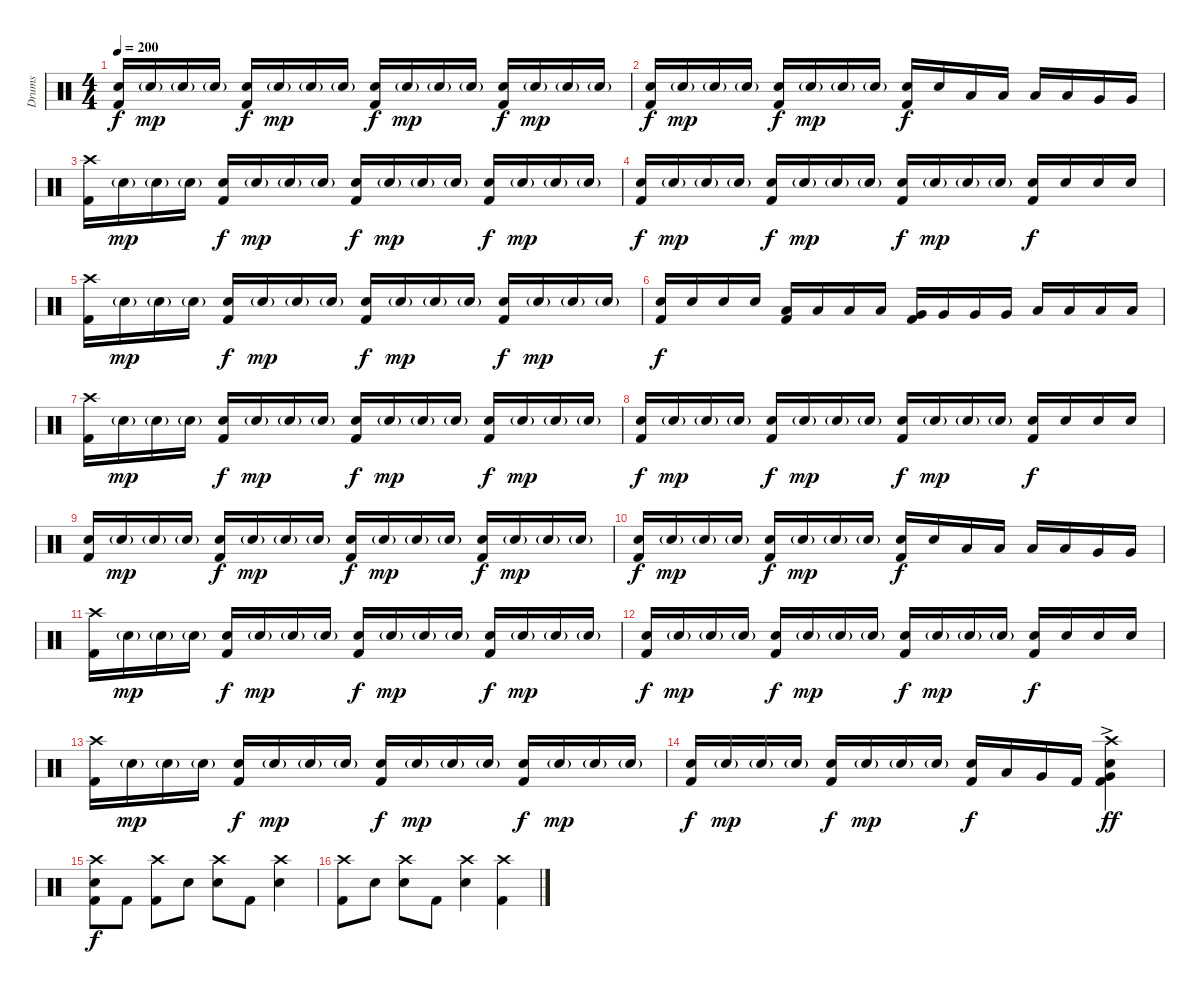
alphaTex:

\track ("Drums" "Drums") {instrument percussion}
\staff {score}
\articulation defaults
\ts (4 4)
\tempo 200
\clef neutral
\ks c
("Electric Snare (hit)" "Kick (hit) 2").16{dy f} "Electric Snare (hit)"{g}.16{dy mp} "Electric Snare (hit)"{g}.16 "Electric Snare (hit)"{g}.16 ("Electric Snare (hit)" "Kick (hit) 2").16{dy f} "Electric Snare (hit)"{g}.16{dy mp} "Electric Snare (hit)"{g}.16 "Electric Snare (hit)"{g}.16 ("Electric Snare (hit)" "Kick (hit) 2").16{dy f} "Electric Snare (hit)"{g}.16{dy mp} "Electric Snare (hit)"{g}.16 "Electric Snare (hit)"{g}.16 ("Electric Snare (hit)" "Kick (hit) 2").16{dy f} "Electric Snare (hit)"{g}.16{dy mp} "Electric Snare (hit)"{g}.16 "Electric Snare (hit)"{g}.16 |
("Electric Snare (hit)" "Kick (hit) 2").16{dy f} "Electric Snare (hit)"{g}.16{dy mp} "Electric Snare (hit)"{g}.16 "Electric Snare (hit)"{g}.16 ("Electric Snare (hit)" "Kick (hit) 2").16{dy f} "Electric Snare (hit)"{g}.16{dy mp} "Electric Snare (hit)"{g}.16 "Electric Snare (hit)"{g}.16 ("Electric Snare (hit)" "Kick (hit) 2").16{dy f} "Electric Snare (hit)".16 "Low Tom (hit)".16 "Low Tom (hit)".16 "Low Tom (hit)".16 "Low Tom (hit)".16 "Very Low Tom (hit)".16 "Very Low Tom (hit)".16 |
("Crash high (hit)" "Kick (hit) 2").16 "Electric Snare (hit)"{g}.16{dy mp} "Electric Snare (hit)"{g}.16 "Electric Snare (hit)"{g}.16 ("Electric Snare (hit)" "Kick (hit) 2").16{dy f} "Electric Snare (hit)"{g}.16{dy mp} "Electric Snare (hit)"{g}.16 "Electric Snare (hit)"{g}.16 ("Electric Snare (hit)" "Kick (hit) 2").16{dy f} "Electric Snare (hit)"{g}.16{dy mp} "Electric Snare (hit)"{g}.16 "Electric Snare (hit)"{g}.16 ("Electric Snare (hit)" "Kick (hit) 2").16{dy f} "Electric Snare (hit)"{g}.16{dy mp} "Electric Snare (hit)"{g}.16 "Electric Snare (hit)"{g}.16 |
("Electric Snare (hit)" "Kick (hit) 2").16{dy f} "Electric Snare (hit)"{g}.16{dy mp} "Electric Snare (hit)"{g}.16 "Electric Snare (hit)"{g}.16 ("Electric Snare (hit)" "Kick (hit) 2").16{dy f} "Electric Snare (hit)"{g}.16{dy mp} "Electric Snare (hit)"{g}.16 "Electric Snare (hit)"{g}.16 ("Electric Snare (hit)" "Kick (hit) 2").16{dy f} "Electric Snare (hit)"{g}.16{dy mp} "Electric Snare (hit)"{g}.16 "Electric Snare (hit)"{g}.16 ("Electric Snare (hit)" "Kick (hit) 2").16{dy f} "Electric Snare (hit)".16 "Electric Snare (hit)".16 "Electric Snare (hit)".16 |
("Crash high (hit)" "Kick (hit) 2").16 "Electric Snare (hit)"{g}.16{dy mp} "Electric Snare (hit)"{g}.16 "Electric Snare (hit)"{g}.16 ("Electric Snare (hit)" "Kick (hit) 2").16{dy f} "Electric Snare (hit)"{g}.16{dy mp} "Electric Snare (hit)"{g}.16 "Electric Snare (hit)"{g}.16 ("Electric Snare (hit)" "Kick (hit) 2").16{dy f} "Electric Snare (hit)"{g}.16{dy mp} "Electric Snare (hit)"{g}.16 "Electric Snare (hit)"{g}.16 ("Electric Snare (hit)" "Kick (hit) 2").16{dy f} "Electric Snare (hit)"{g}.16{dy mp} "Electric Snare (hit)"{g}.16 "Electric Snare (hit)"{g}.16 |
("Electric Snare (hit)" "Kick (hit) 2").16{dy f} "Electric Snare (hit)".16 "Electric Snare (hit)".16 "Electric Snare (hit)".16 ("Low Tom (hit)" "Kick (hit) 2").16 "Low Tom (hit)".16 "Low Tom (hit)".16 "Low Tom (hit)".16 ("Very Low Tom (hit)" "Kick (hit) 2").16 "Very Low Tom (hit)".16 "Very Low Tom (hit)".16 "Very Low Tom (hit)".16 "Low Floor Tom (hit)".16 "Low Floor Tom (hit)".16 "Low Floor Tom (hit)".16 "Low Floor Tom (hit)".16 |
("Crash high (hit)" "Kick (hit) 2").16 "Electric Snare (hit)"{g}.16{dy mp} "Electric Snare (hit)"{g}.16 "Electric Snare (hit)"{g}.16 ("Electric Snare (hit)" "Kick (hit) 2").16{dy f} "Electric Snare (hit)"{g}.16{dy mp} "Electric Snare (hit)"{g}.16 "Electric Snare (hit)"{g}.16 ("Electric Snare (hit)" "Kick (hit) 2").16{dy f} "Electric Snare (hit)"{g}.16{dy mp} "Electric Snare (hit)"{g}.16 "Electric Snare (hit)"{g}.16 ("Electric Snare (hit)" "Kick (hit) 2").16{dy f} "Electric Snare (hit)"{g}.16{dy mp} "Electric Snare (hit)"{g}.16 "Electric Snare (hit)"{g}.16 |
("Electric Snare (hit)" "Kick (hit) 2").16{dy f} "Electric Snare (hit)"{g}.16{dy mp} "Electric Snare (hit)"{g}.16 "Electric Snare (hit)"{g}.16 ("Electric Snare (hit)" "Kick (hit) 2").16{dy f} "Electric Snare (hit)"{g}.16{dy mp} "Electric Snare (hit)"{g}.16 "Electric Snare (hit)"{g}.16 ("Electric Snare (hit)" "Kick (hit) 2").16{dy f} "Electric Snare (hit)"{g}.16{dy mp} "Electric Snare (hit)"{g}.16 "Electric Snare (hit)"{g}.16 ("Electric Snare (hit)" "Kick (hit) 2").16{dy f} "Electric Snare (hit)".16 "Electric Snare (hit)".16 "Electric Snare (hit)".16 |
("Electric Snare (hit)" "Kick (hit) 2").16 "Electric Snare (hit)"{g}.16{dy mp} "Electric Snare (hit)"{g}.16 "Electric Snare (hit)"{g}.16 ("Electric Snare (hit)" "Kick (hit) 2").16{dy f} "Electric Snare (hit)"{g}.16{dy mp} "Electric Snare (hit)"{g}.16 "Electric Snare (hit)"{g}.16 ("Electric Snare (hit)" "Kick (hit) 2").16{dy f} "Electric Snare (hit)"{g}.16{dy mp} "Electric Snare (hit)"{g}.16 "Electric Snare (hit)"{g}.16 ("Electric Snare (hit)" "Kick (hit) 2").16{dy f} "Electric Snare (hit)"{g}.16{dy mp} "Electric Snare (hit)"{g}.16 "Electric Snare (hit)"{g}.16 |
("Electric Snare (hit)" "Kick (hit) 2").16{dy f} "Electric Snare (hit)"{g}.16{dy mp} "Electric Snare (hit)"{g}.16 "Electric Snare (hit)"{g}.16 ("Electric Snare (hit)" "Kick (hit) 2").16{dy f} "Electric Snare (hit)"{g}.16{dy mp} "Electric Snare (hit)"{g}.16 "Electric Snare (hit)"{g}.16 ("Electric Snare (hit)" "Kick (hit) 2").16{dy f} "Electric Snare (hit)".16 "Low Tom (hit)".16 "Low Tom (hit)".16 "Low Tom (hit)".16 "Low Tom (hit)".16 "Very Low Tom (hit)".16 "Very Low Tom (hit)".16 |
("Crash high (hit)" "Kick (hit) 2").16 "Electric Snare (hit)"{g}.16{dy mp} "Electric Snare (hit)"{g}.16 "Electric Snare (hit)"{g}.16 ("Electric Snare (hit)" "Kick (hit) 2").16{dy f} "Electric Snare (hit)"{g}.16{dy mp} "Electric Snare (hit)"{g}.16 "Electric Snare (hit)"{g}.16 ("Electric Snare (hit)" "Kick (hit) 2").16{dy f} "Electric Snare (hit)"{g}.16{dy mp} "Electric Snare (hit)"{g}.16 "Electric Snare (hit)"{g}.16 ("Electric Snare (hit)" "Kick (hit) 2").16{dy f} "Electric Snare (hit)"{g}.16{dy mp} "Electric Snare (hit)"{g}.16 "Electric Snare (hit)"{g}.16 |
("Electric Snare (hit)" "Kick (hit) 2").16{dy f} "Electric Snare (hit)"{g}.16{dy mp} "Electric Snare (hit)"{g}.16 "Electric Snare (hit)"{g}.16 ("Electric Snare (hit)" "Kick (hit) 2").16{dy f} "Electric Snare (hit)"{g}.16{dy mp} "Electric Snare (hit)"{g}.16 "Electric Snare (hit)"{g}.16 ("Electric Snare (hit)" "Kick (hit) 2").16{dy f} "Electric Snare (hit)"{g}.16{dy mp} "Electric Snare (hit)"{g}.16 "Electric Snare (hit)"{g}.16 ("Electric Snare (hit)" "Kick (hit) 2").16{dy f} "Electric Snare (hit)".16 "Electric Snare (hit)".16 "Electric Snare (hit)".16 |
("Crash high (hit)" "Kick (hit) 2").16 "Electric Snare (hit)"{g}.16{dy mp} "Electric Snare (hit)"{g}.16 "Electric Snare (hit)"{g}.16 ("Electric Snare (hit)" "Kick (hit) 2").16{dy f} "Electric Snare (hit)"{g}.16{dy mp} "Electric Snare (hit)"{g}.16 "Electric Snare (hit)"{g}.16 ("Electric Snare (hit)" "Kick (hit) 2").16{dy f} "Electric Snare (hit)"{g}.16{dy mp} "Electric Snare (hit)"{g}.16 "Electric Snare (hit)"{g}.16 ("Electric Snare (hit)" "Kick (hit) 2").16{dy f} "Electric Snare (hit)"{g}.16{dy mp} "Electric Snare (hit)"{g}.16 "Electric Snare (hit)"{g}.16 |
("Electric Snare (hit)" "Kick (hit) 2").16{dy f} "Electric Snare (hit)"{g}.16{dy mp} "Electric Snare (hit)"{g}.16 "Electric Snare (hit)"{g}.16 ("Electric Snare (hit)" "Kick (hit) 2").16{dy f} "Electric Snare (hit)"{g}.16{dy mp} "Electric Snare (hit)"{g}.16 "Electric Snare (hit)"{g}.16 ("Electric Snare (hit)" "Kick (hit) 2").16{dy f} "Low Tom (hit)".16 "Very Low Tom (hit)".16 "Kick (hit) 2".16 ("Crash high (hit)"{ac} "Very Low Tom (hit)"{ac} "Electric Snare (hit)"{ac} "Kick (hit) 2"{ac}).4{dy ff} |
("Crash high (hit)" "Electric Snare (hit)" "Kick (hit) 2").8{dy f} "Kick (hit) 2".8 ("Crash high (hit)" "Kick (hit) 2").8 "Electric Snare (hit)".8 ("Crash high (hit)" "Electric Snare (hit)").8 "Kick (hit) 2".8 ("Crash high (hit)" "Electric Snare (hit)").4 |
("Crash high (hit)" "Kick (hit) 2").8 "Electric Snare (hit)".8 ("Crash high (hit)" "Electric Snare (hit)").8 "Kick (hit) 2".8 ("Crash high (hit)" "Electric Snare (hit)").4 ("Crash high (hit)" "Kick (hit) 2").4
